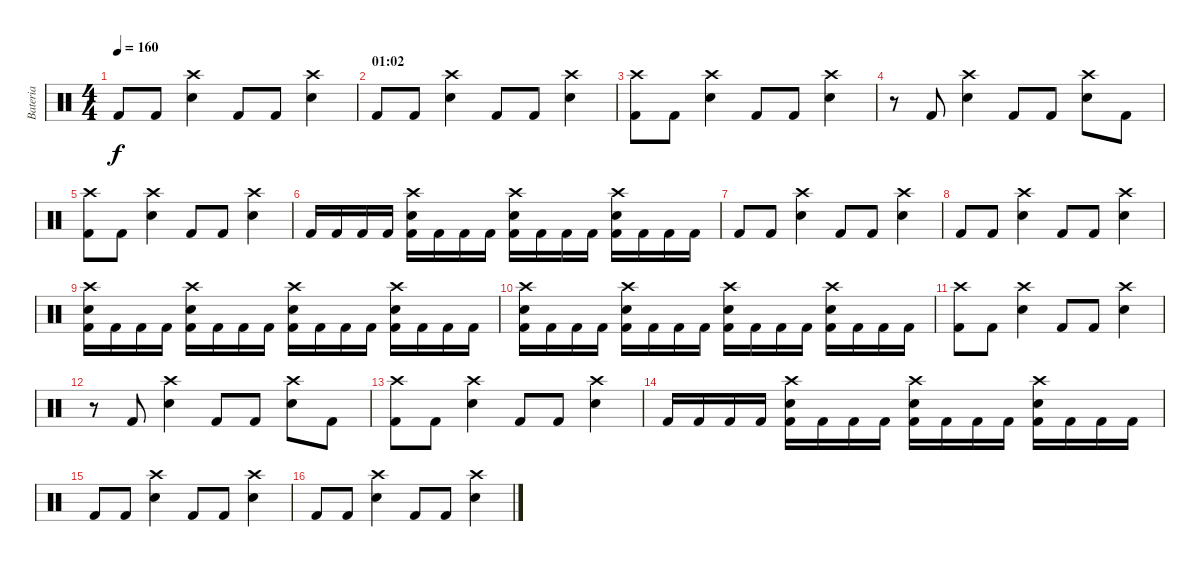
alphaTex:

\track ("Bateria" "Bateria") {instrument percussion}
\staff {score}
\articulation defaults
\ts (4 4)
\tempo 160
\clef neutral
\ks c "Kick (hit) 2".8{dy f} "Kick (hit) 2".8
("Electric Snare (hit)" "Crash high (hit)").4 "Kick (hit) 2".8 "Kick (hit) 2".8 ("Electric Snare (hit)" "Crash high (hit)").4 |
\section ("" "01:02")
"Kick (hit) 2".8 "Kick (hit) 2".8 ("Electric Snare (hit)" "Crash high (hit)").4 "Kick (hit) 2".8 "Kick (hit) 2".8 ("Electric Snare (hit)" "Crash high (hit)").4 |
("Kick (hit) 2" "Crash high (hit)").8 "Kick (hit) 2".8 ("Electric Snare (hit)" "Crash high (hit)").4 "Kick (hit) 2".8 "Kick (hit) 2".8 ("Electric Snare (hit)" "Crash high (hit)").4 |
r.8 "Kick (hit) 2".8 ("Snare (hit) 2" "Crash high (hit)").4 "Kick (hit) 2".8 "Kick (hit) 2".8 ("Crash high (hit)" "Snare (hit) 2").8 "Kick (hit) 2".8 |
("Kick (hit) 2" "Crash high (hit)").8 "Kick (hit) 2".8 ("Electric Snare (hit)" "Crash high (hit)").4 "Kick (hit) 2".8 "Kick (hit) 2".8 ("Electric Snare (hit)" "Crash high (hit)").4 |
"Kick (hit) 2".16 "Kick (hit) 2".16 "Kick (hit) 2".16 "Kick (hit) 2".16 ("Crash high (hit)" "Kick (hit) 2" "Electric Snare (hit)").16 "Kick (hit) 2".16 "Kick (hit) 2".16 "Kick (hit) 2".16 ("Crash high (hit)" "Kick (hit) 2" "Electric Snare (hit)").16 "Kick (hit) 2".16 "Kick (hit) 2".16 "Kick (hit) 2".16 ("Crash high (hit)" "Kick (hit) 2" "Electric Snare (hit)").16 "Kick (hit) 2".16 "Kick (hit) 2".16 "Kick (hit) 2".16 |
"Kick (hit) 2".8 "Kick (hit) 2".8 ("Electric Snare (hit)" "Crash high (hit)").4 "Kick (hit) 2".8 "Kick (hit) 2".8 ("Electric Snare (hit)" "Crash high (hit)").4 |
"Kick (hit) 2".8 "Kick (hit) 2".8 ("Electric Snare (hit)" "Crash high (hit)").4 "Kick (hit) 2".8 "Kick (hit) 2".8 ("Electric Snare (hit)" "Crash high (hit)").4 |
("Crash high (hit)" "Kick (hit) 2" "Electric Snare (hit)").16 "Kick (hit) 2".16 "Kick (hit) 2".16 "Kick (hit) 2".16 ("Crash high (hit)" "Kick (hit) 2" "Electric Snare (hit)").16 "Kick (hit) 2".16 "Kick (hit) 2".16 "Kick (hit) 2".16 ("Crash high (hit)" "Kick (hit) 2" "Electric Snare (hit)").16 "Kick (hit) 2".16 "Kick (hit) 2".16 "Kick (hit) 2".16 ("Crash high (hit)" "Kick (hit) 2" "Electric Snare (hit)").16 "Kick (hit) 2".16 "Kick (hit) 2".16 "Kick (hit) 2".16 |
("Crash high (hit)" "Kick (hit) 2" "Electric Snare (hit)").16 "Kick (hit) 2".16 "Kick (hit) 2".16 "Kick (hit) 2".16 ("Crash high (hit)" "Kick (hit) 2" "Electric Snare (hit)").16 "Kick (hit) 2".16 "Kick (hit) 2".16 "Kick (hit) 2".16 ("Crash high (hit)" "Kick (hit) 2" "Electric Snare (hit)").16 "Kick (hit) 2".16 "Kick (hit) 2".16 "Kick (hit) 2".16 ("Crash high (hit)" "Kick (hit) 2" "Electric Snare (hit)").16 "Kick (hit) 2".16 "Kick (hit) 2".16 "Kick (hit) 2".16 |
("Kick (hit) 2" "Crash high (hit)").8 "Kick (hit) 2".8 ("Electric Snare (hit)" "Crash high (hit)").4 "Kick (hit) 2".8 "Kick (hit) 2".8 ("Electric Snare (hit)" "Crash high (hit)").4 |
r.8 "Kick (hit) 2".8 ("Snare (hit) 2" "Crash high (hit)").4 "Kick (hit) 2".8 "Kick (hit) 2".8 ("Crash high (hit)" "Snare (hit) 2").8 "Kick (hit) 2".8 |
("Kick (hit) 2" "Crash high (hit)").8 "Kick (hit) 2".8 ("Electric Snare (hit)" "Crash high (hit)").4 "Kick (hit) 2".8 "Kick (hit) 2".8 ("Electric Snare (hit)" "Crash high (hit)").4 |
"Kick (hit) 2".16 "Kick (hit) 2".16 "Kick (hit) 2".16 "Kick (hit) 2".16 ("Crash high (hit)" "Kick (hit) 2" "Electric Snare (hit)").16 "Kick (hit) 2".16 "Kick (hit) 2".16 "Kick (hit) 2".16 ("Crash high (hit)" "Kick (hit) 2" "Electric Snare (hit)").16 "Kick (hit) 2".16 "Kick (hit) 2".16 "Kick (hit) 2".16 ("Crash high (hit)" "Kick (hit) 2" "Electric Snare (hit)").16 "Kick (hit) 2".16 "Kick (hit) 2".16 "Kick (hit) 2".16 |
"Kick (hit) 2".8 "Kick (hit) 2".8 ("Electric Snare (hit)" "Crash high (hit)").4 "Kick (hit) 2".8 "Kick (hit) 2".8 ("Electric Snare (hit)" "Crash high (hit)").4 |
"Kick (hit) 2".8 "Kick (hit) 2".8 ("Electric Snare (hit)" "Crash high (hit)").4 "Kick (hit) 2".8 "Kick (hit) 2".8 ("Electric Snare (hit)" "Crash high (hit)").4
